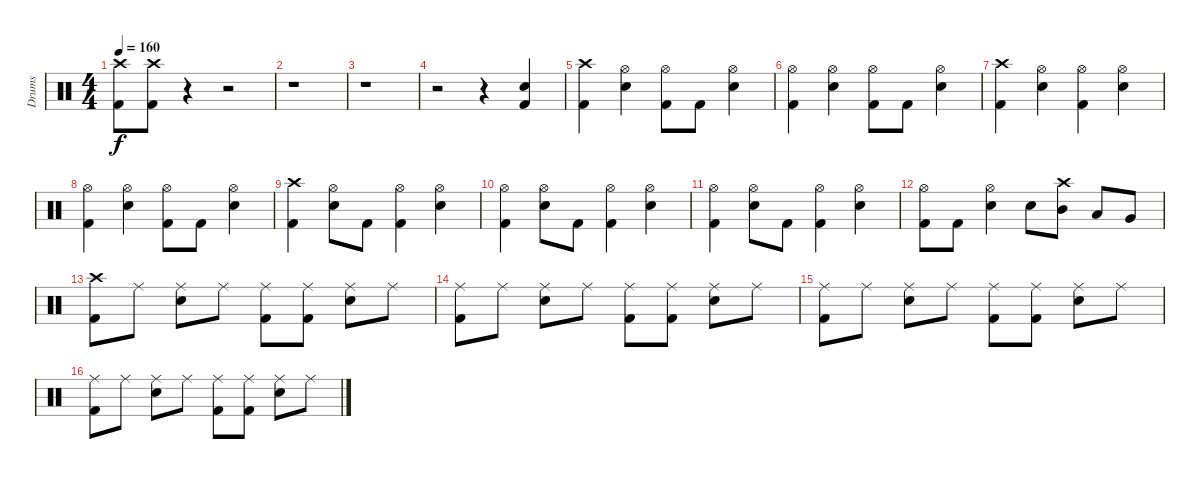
\track ("Drums" "Drums") {instrument percussion}
\staff {score}
\articulation defaults
\ts (4 4)
\tempo 160
\clef neutral
\ks c
("Crash high (hit)" "Kick (hit) 2").8{dy f} ("Crash high (hit)" "Kick (hit) 2").8 r.4 r.2 |
r.1 |
r.1 |
r.2 r.4 ("Electric Snare (hit)" "Kick (hit) 2").4 |
("Crash high (hit)" "Kick (hit) 2").4 ("Hi-Hat (open)" "Electric Snare (hit)").4 ("Hi-Hat (open)" "Kick (hit) 2").8 "Kick (hit) 2".8 ("Hi-Hat (open)" "Electric Snare (hit)").4 |
("Hi-Hat (open)" "Kick (hit) 2").4 ("Hi-Hat (open)" "Electric Snare (hit)").4 ("Hi-Hat (open)" "Kick (hit) 2").8 "Kick (hit) 2".8 ("Hi-Hat (open)" "Electric Snare (hit)").4 |
("Crash high (hit)" "Kick (hit) 2").4 ("Hi-Hat (open)" "Electric Snare (hit)").4 ("Hi-Hat (open)" "Kick (hit) 2").4 ("Hi-Hat (open)" "Electric Snare (hit)").4 |
("Hi-Hat (open)" "Kick (hit) 2").4 ("Hi-Hat (open)" "Electric Snare (hit)").4 ("Hi-Hat (open)" "Kick (hit) 2").8 "Kick (hit) 2".8 ("Hi-Hat (open)" "Electric Snare (hit)").4 |
("Crash high (hit)" "Kick (hit) 2").4 ("Hi-Hat (open)" "Electric Snare (hit)").8 "Kick (hit) 2".8 ("Hi-Hat (open)" "Kick (hit) 2").4 ("Hi-Hat (open)" "Electric Snare (hit)").4 |
("Hi-Hat (open)" "Kick (hit) 2").4 ("Hi-Hat (open)" "Electric Snare (hit)").8 "Kick (hit) 2".8 ("Hi-Hat (open)" "Kick (hit) 2").4 ("Hi-Hat (open)" "Electric Snare (hit)").4 |
("Hi-Hat (open)" "Kick (hit) 2").4 ("Hi-Hat (open)" "Electric Snare (hit)").8 "Kick (hit) 2".8 ("Hi-Hat (open)" "Kick (hit) 2").4 ("Hi-Hat (open)" "Electric Snare (hit)").4 |
("Hi-Hat (open)" "Kick (hit) 2").8 "Kick (hit) 2".8 ("Hi-Hat (open)" "Electric Snare (hit)").4 "Electric Snare (hit)".8 ("Crash high (hit)" "Mid Tom (hit)").8 "Low Tom (hit)".8 "Very Low Tom (hit)".8 |
("Crash high (hit)" "Kick (hit) 2").8 "Ride (middle)".8 ("Ride (middle)" "Electric Snare (hit)").8 "Ride (middle)".8 ("Ride (middle)" "Kick (hit) 2").8 ("Ride (middle)" "Kick (hit) 2").8 ("Ride (middle)" "Electric Snare (hit)").8 "Ride (middle)".8 |
("Ride (middle)" "Kick (hit) 2").8 "Ride (middle)".8 ("Ride (middle)" "Electric Snare (hit)").8 "Ride (middle)".8 ("Ride (middle)" "Kick (hit) 2").8 ("Ride (middle)" "Kick (hit) 2").8 ("Ride (middle)" "Electric Snare (hit)").8 "Ride (middle)".8 |
("Ride (middle)" "Kick (hit) 2").8 "Ride (middle)".8 ("Ride (middle)" "Electric Snare (hit)").8 "Ride (middle)".8 ("Ride (middle)" "Kick (hit) 2").8 ("Ride (middle)" "Kick (hit) 2").8 ("Ride (middle)" "Electric Snare (hit)").8 "Ride (middle)".8 |
("Ride (middle)" "Kick (hit) 2").8 "Ride (middle)".8 ("Ride (middle)" "Electric Snare (hit)").8 "Ride (middle)".8 ("Ride (middle)" "Kick (hit) 2").8 ("Ride (middle)" "Kick (hit) 2").8 ("Ride (middle)" "Electric Snare (hit)").8 "Ride (middle)".8
